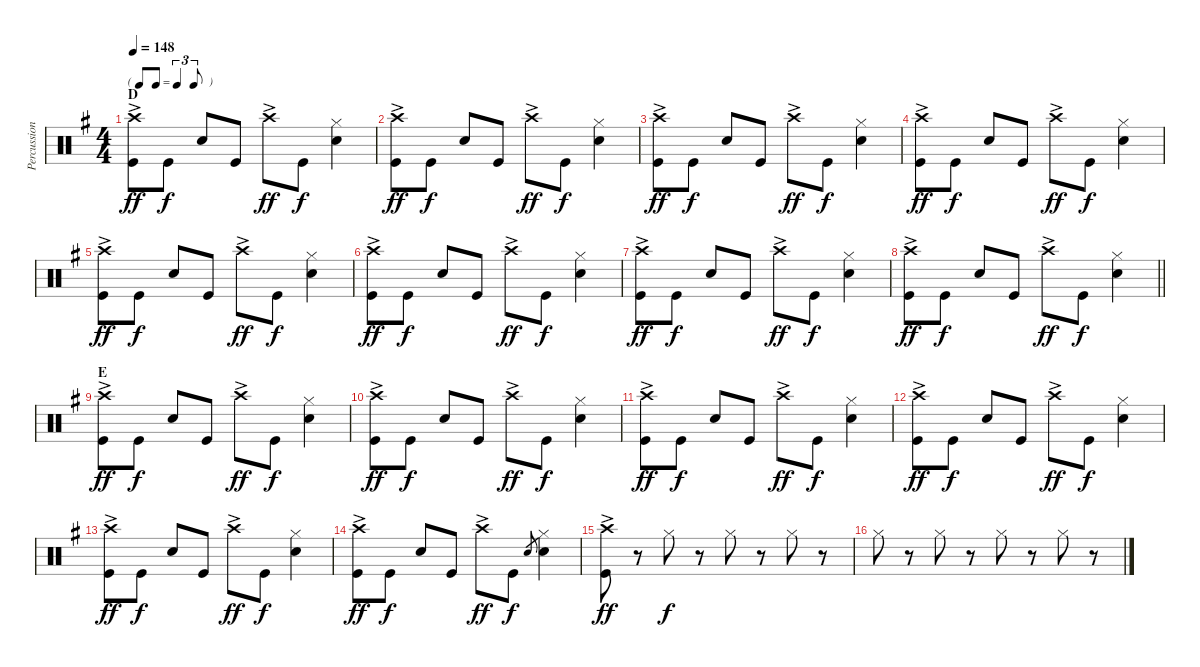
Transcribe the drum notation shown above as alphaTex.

\track ("Percussion" "Percussion") {instrument percussion}
\staff {score}
\articulation defaults
\ts (4 4)
\tf triplet8th
\section ("" "D")
\tempo 148
\clef neutral
\ks g
("Crash high (hit)"{ac} "Kick (hit)").8{dy ff} "Kick (hit)".8{dy f} "Snare (hit) 2".8 "Kick (hit)".8 "Crash high (hit)"{ac}.8{dy ff} "Kick (hit)".8{dy f} ("Hi-Hat (closed)" "Snare (hit) 2").4 |
("Crash high (hit)"{ac} "Kick (hit)").8{dy ff} "Kick (hit)".8{dy f} "Snare (hit) 2".8 "Kick (hit)".8 "Crash high (hit)"{ac}.8{dy ff} "Kick (hit)".8{dy f} ("Hi-Hat (closed)" "Snare (hit) 2").4 |
("Crash high (hit)"{ac} "Kick (hit)").8{dy ff} "Kick (hit)".8{dy f} "Snare (hit) 2".8 "Kick (hit)".8 "Crash high (hit)"{ac}.8{dy ff} "Kick (hit)".8{dy f} ("Hi-Hat (closed)" "Snare (hit) 2").4 |
("Crash high (hit)"{ac} "Kick (hit)").8{dy ff} "Kick (hit)".8{dy f} "Snare (hit) 2".8 "Kick (hit)".8 "Crash high (hit)"{ac}.8{dy ff} "Kick (hit)".8{dy f} ("Hi-Hat (closed)" "Snare (hit) 2").4 |
("Crash high (hit)"{ac} "Kick (hit)").8{dy ff} "Kick (hit)".8{dy f} "Snare (hit) 2".8 "Kick (hit)".8 "Crash high (hit)"{ac}.8{dy ff} "Kick (hit)".8{dy f} ("Hi-Hat (closed)" "Snare (hit) 2").4 |
("Crash high (hit)"{ac} "Kick (hit)").8{dy ff} "Kick (hit)".8{dy f} "Snare (hit) 2".8 "Kick (hit)".8 "Crash high (hit)"{ac}.8{dy ff} "Kick (hit)".8{dy f} ("Hi-Hat (closed)" "Snare (hit) 2").4 |
("Crash high (hit)"{ac} "Kick (hit)").8{dy ff} "Kick (hit)".8{dy f} "Snare (hit) 2".8 "Kick (hit)".8 "Crash high (hit)"{ac}.8{dy ff} "Kick (hit)".8{dy f} ("Hi-Hat (closed)" "Snare (hit) 2").4 |
\barLineRight lightlight
("Crash high (hit)"{ac} "Kick (hit)").8{dy ff} "Kick (hit)".8{dy f} "Snare (hit) 2".8 "Kick (hit)".8 "Crash high (hit)"{ac}.8{dy ff} "Kick (hit)".8{dy f} ("Hi-Hat (closed)" "Snare (hit) 2").4 |
\section ("" "E")
("Crash high (hit)"{ac} "Kick (hit)").8{dy ff} "Kick (hit)".8{dy f} "Snare (hit) 2".8 "Kick (hit)".8 "Crash high (hit)"{ac}.8{dy ff} "Kick (hit)".8{dy f} ("Hi-Hat (closed)" "Snare (hit) 2").4 |
("Crash high (hit)"{ac} "Kick (hit)").8{dy ff} "Kick (hit)".8{dy f} "Snare (hit) 2".8 "Kick (hit)".8 "Crash high (hit)"{ac}.8{dy ff} "Kick (hit)".8{dy f} ("Hi-Hat (closed)" "Snare (hit) 2").4 |
("Crash high (hit)"{ac} "Kick (hit)").8{dy ff} "Kick (hit)".8{dy f} "Snare (hit) 2".8 "Kick (hit)".8 "Crash high (hit)"{ac}.8{dy ff} "Kick (hit)".8{dy f} ("Hi-Hat (closed)" "Snare (hit) 2").4 |
("Crash high (hit)"{ac} "Kick (hit)").8{dy ff} "Kick (hit)".8{dy f} "Snare (hit) 2".8 "Kick (hit)".8 "Crash high (hit)"{ac}.8{dy ff} "Kick (hit)".8{dy f} ("Hi-Hat (closed)" "Snare (hit) 2").4 |
("Crash high (hit)"{ac} "Kick (hit)").8{dy ff} "Kick (hit)".8{dy f} "Snare (hit) 2".8 "Kick (hit)".8 "Crash high (hit)"{ac}.8{dy ff} "Kick (hit)".8{dy f} ("Hi-Hat (closed)" "Snare (hit) 2").4 |
("Crash high (hit)"{ac} "Kick (hit)").8{dy ff} "Kick (hit)".8{dy f} "Snare (hit) 2".8 "Kick (hit)".8 "Crash high (hit)"{ac}.8{dy ff} "Kick (hit)".8{dy f} "Snare (hit) 2".8{gr} ("Hi-Hat (closed)" "Snare (hit) 2").4 |
("Crash high (hit)"{ac} "Kick (hit)").8{dy ff} r.8 "Hi-Hat (closed)".8{dy f} r.8 "Hi-Hat (closed)".8 r.8 "Hi-Hat (closed)".8 r.8 |
"Hi-Hat (closed)".8 r.8 "Hi-Hat (closed)".8 r.8 "Hi-Hat (closed)".8 r.8 "Hi-Hat (closed)".8 r.8
